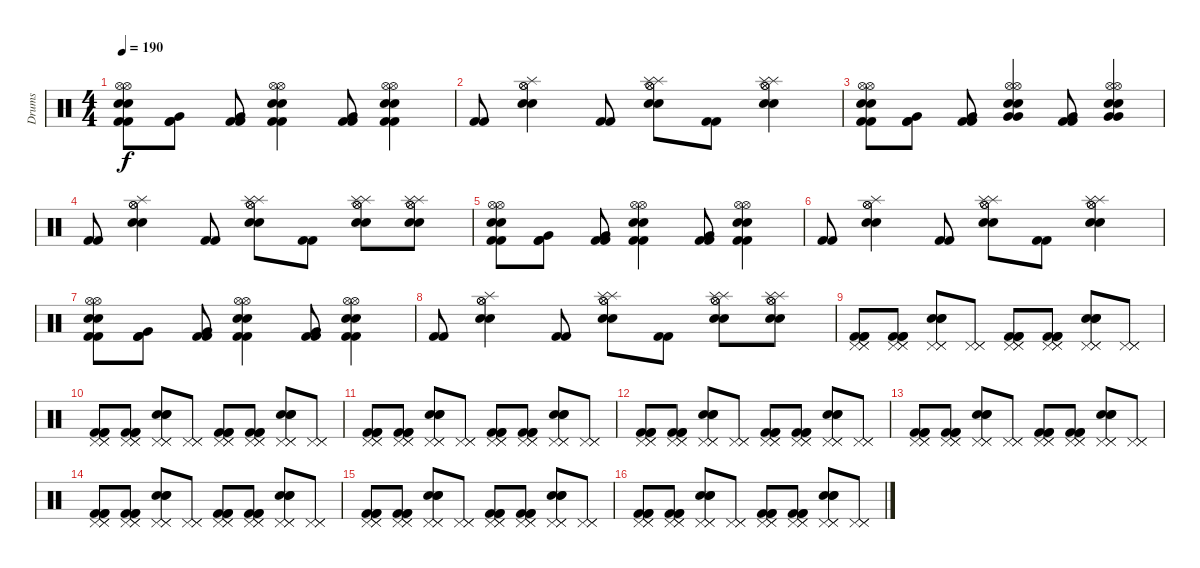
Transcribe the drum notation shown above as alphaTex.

\track ("Drums" "Drums") {instrument percussion}
\staff {score}
\articulation defaults
\ts (4 4)
\tempo 190
\clef neutral
\ks c
("Kick (hit) 2" "Kick (hit) 2" "Snare (hit) 2" "Snare (hit) 2" "Hi-Hat (open)" "Hi-Hat (open)").8{dy f} ("Kick (hit) 2" "Kick (hit) 2" "Very Low Tom (hit)").8 ("Kick (hit) 2" "Kick (hit) 2" "Very Low Tom (hit)").8 ("Kick (hit) 2" "Kick (hit) 2" "Snare (hit) 2" "Snare (hit) 2" "Hi-Hat (open)" "Hi-Hat (open)").4 ("Kick (hit) 2" "Kick (hit) 2" "Very Low Tom (hit)").8 ("Kick (hit) 2" "Kick (hit) 2" "Snare (hit) 2" "Snare (hit) 2" "Hi-Hat (open)" "Hi-Hat (open)").4 |
("Kick (hit) 2" "Kick (hit) 2").8 ("Snare (hit) 2" "Snare (hit) 2" "Hi-Hat (open)" "Hi-Hat (open)" "Splash (hit)").4 ("Kick (hit) 2" "Kick (hit) 2").8 ("Snare (hit) 2" "Snare (hit) 2" "Hi-Hat (open)" "Hi-Hat (open)" "Splash (hit)" "Splash (hit)").8 ("Kick (hit) 2" "Kick (hit) 2").8 ("Snare (hit) 2" "Snare (hit) 2" "Hi-Hat (open)" "Hi-Hat (open)" "Splash (hit)" "Splash (hit)").4 |
("Kick (hit) 2" "Kick (hit) 2" "Snare (hit) 2" "Snare (hit) 2" "Hi-Hat (open)" "Hi-Hat (open)").8 ("Kick (hit) 2" "Kick (hit) 2" "Very Low Tom (hit)").8 ("Kick (hit) 2" "Kick (hit) 2" "Very Low Tom (hit)").8 ("Very Low Tom (hit)" "Very Low Tom (hit)" "Snare (hit) 2" "Snare (hit) 2" "Hi-Hat (open)" "Hi-Hat (open)").4 ("Kick (hit) 2" "Kick (hit) 2" "Very Low Tom (hit)").8 ("Very Low Tom (hit)" "Very Low Tom (hit)" "Snare (hit) 2" "Snare (hit) 2" "Hi-Hat (open)" "Hi-Hat (open)").4 |
("Kick (hit) 2" "Kick (hit) 2").8 ("Snare (hit) 2" "Snare (hit) 2" "Hi-Hat (open)" "Hi-Hat (open)" "Splash (hit)").4 ("Kick (hit) 2" "Kick (hit) 2").8 ("Snare (hit) 2" "Snare (hit) 2" "Hi-Hat (open)" "Hi-Hat (open)" "Splash (hit)" "Splash (hit)").8 ("Kick (hit) 2" "Kick (hit) 2").8 ("Snare (hit) 2" "Snare (hit) 2" "Hi-Hat (open)" "Hi-Hat (open)" "Splash (hit)" "Splash (hit)").8 ("Snare (hit) 2" "Snare (hit) 2" "Hi-Hat (open)" "Hi-Hat (open)" "Splash (hit)" "Splash (hit)").8 |
("Kick (hit) 2" "Kick (hit) 2" "Snare (hit) 2" "Snare (hit) 2" "Hi-Hat (open)" "Hi-Hat (open)").8 ("Kick (hit) 2" "Kick (hit) 2" "Very Low Tom (hit)").8 ("Kick (hit) 2" "Kick (hit) 2" "Very Low Tom (hit)").8 ("Kick (hit) 2" "Kick (hit) 2" "Snare (hit) 2" "Snare (hit) 2" "Hi-Hat (open)" "Hi-Hat (open)").4 ("Kick (hit) 2" "Kick (hit) 2" "Very Low Tom (hit)").8 ("Kick (hit) 2" "Kick (hit) 2" "Snare (hit) 2" "Snare (hit) 2" "Hi-Hat (open)" "Hi-Hat (open)").4 |
("Kick (hit) 2" "Kick (hit) 2").8 ("Snare (hit) 2" "Snare (hit) 2" "Hi-Hat (open)" "Hi-Hat (open)" "Splash (hit)").4 ("Kick (hit) 2" "Kick (hit) 2").8 ("Snare (hit) 2" "Snare (hit) 2" "Hi-Hat (open)" "Hi-Hat (open)" "Splash (hit)" "Splash (hit)").8 ("Kick (hit) 2" "Kick (hit) 2").8 ("Snare (hit) 2" "Snare (hit) 2" "Hi-Hat (open)" "Hi-Hat (open)" "Splash (hit)" "Splash (hit)").4 |
("Kick (hit) 2" "Kick (hit) 2" "Snare (hit) 2" "Snare (hit) 2" "Hi-Hat (open)" "Hi-Hat (open)").8 ("Kick (hit) 2" "Kick (hit) 2" "Very Low Tom (hit)").8 ("Kick (hit) 2" "Kick (hit) 2" "Very Low Tom (hit)").8 ("Kick (hit) 2" "Kick (hit) 2" "Snare (hit) 2" "Snare (hit) 2" "Hi-Hat (open)" "Hi-Hat (open)").4 ("Kick (hit) 2" "Kick (hit) 2" "Very Low Tom (hit)").8 ("Kick (hit) 2" "Kick (hit) 2" "Snare (hit) 2" "Snare (hit) 2" "Hi-Hat (open)" "Hi-Hat (open)").4 |
("Kick (hit) 2" "Kick (hit) 2").8 ("Snare (hit) 2" "Snare (hit) 2" "Hi-Hat (open)" "Hi-Hat (open)" "Splash (hit)").4 ("Kick (hit) 2" "Kick (hit) 2").8 ("Snare (hit) 2" "Snare (hit) 2" "Hi-Hat (open)" "Hi-Hat (open)" "Splash (hit)" "Splash (hit)").8 ("Kick (hit) 2" "Kick (hit) 2").8 ("Snare (hit) 2" "Snare (hit) 2" "Hi-Hat (open)" "Hi-Hat (open)" "Splash (hit)" "Splash (hit)").8 ("Snare (hit) 2" "Snare (hit) 2" "Hi-Hat (open)" "Hi-Hat (open)" "Splash (hit)" "Splash (hit)").8 |
("Kick (hit) 2" "Kick (hit) 2" "Kick (hit) 2" "Pedal Hi-Hat (hit)" "Pedal Hi-Hat (hit)" "Pedal Hi-Hat (hit)").8 ("Kick (hit) 2" "Kick (hit) 2" "Kick (hit) 2" "Pedal Hi-Hat (hit)" "Pedal Hi-Hat (hit)" "Pedal Hi-Hat (hit)").8 ("Snare (hit) 2" "Snare (hit) 2" "Snare (hit) 2" "Pedal Hi-Hat (hit)" "Pedal Hi-Hat (hit)" "Pedal Hi-Hat (hit)").8 ("Pedal Hi-Hat (hit)" "Pedal Hi-Hat (hit)" "Pedal Hi-Hat (hit)").8 ("Kick (hit) 2" "Kick (hit) 2" "Kick (hit) 2" "Pedal Hi-Hat (hit)" "Pedal Hi-Hat (hit)" "Pedal Hi-Hat (hit)").8 ("Kick (hit) 2" "Kick (hit) 2" "Kick (hit) 2" "Pedal Hi-Hat (hit)" "Pedal Hi-Hat (hit)" "Pedal Hi-Hat (hit)").8 ("Snare (hit) 2" "Snare (hit) 2" "Snare (hit) 2" "Pedal Hi-Hat (hit)" "Pedal Hi-Hat (hit)" "Pedal Hi-Hat (hit)").8 ("Pedal Hi-Hat (hit)" "Pedal Hi-Hat (hit)" "Pedal Hi-Hat (hit)").8 |
("Kick (hit) 2" "Kick (hit) 2" "Kick (hit) 2" "Pedal Hi-Hat (hit)" "Pedal Hi-Hat (hit)" "Pedal Hi-Hat (hit)").8 ("Kick (hit) 2" "Kick (hit) 2" "Kick (hit) 2" "Pedal Hi-Hat (hit)" "Pedal Hi-Hat (hit)" "Pedal Hi-Hat (hit)").8 ("Snare (hit) 2" "Snare (hit) 2" "Snare (hit) 2" "Pedal Hi-Hat (hit)" "Pedal Hi-Hat (hit)" "Pedal Hi-Hat (hit)").8 ("Pedal Hi-Hat (hit)" "Pedal Hi-Hat (hit)" "Pedal Hi-Hat (hit)").8 ("Kick (hit) 2" "Kick (hit) 2" "Kick (hit) 2" "Pedal Hi-Hat (hit)" "Pedal Hi-Hat (hit)" "Pedal Hi-Hat (hit)").8 ("Kick (hit) 2" "Kick (hit) 2" "Kick (hit) 2" "Pedal Hi-Hat (hit)" "Pedal Hi-Hat (hit)" "Pedal Hi-Hat (hit)").8 ("Snare (hit) 2" "Snare (hit) 2" "Snare (hit) 2" "Pedal Hi-Hat (hit)" "Pedal Hi-Hat (hit)" "Pedal Hi-Hat (hit)").8 ("Pedal Hi-Hat (hit)" "Pedal Hi-Hat (hit)" "Pedal Hi-Hat (hit)").8 |
("Kick (hit) 2" "Kick (hit) 2" "Kick (hit) 2" "Pedal Hi-Hat (hit)" "Pedal Hi-Hat (hit)" "Pedal Hi-Hat (hit)").8 ("Kick (hit) 2" "Kick (hit) 2" "Kick (hit) 2" "Pedal Hi-Hat (hit)" "Pedal Hi-Hat (hit)" "Pedal Hi-Hat (hit)").8 ("Snare (hit) 2" "Snare (hit) 2" "Snare (hit) 2" "Pedal Hi-Hat (hit)" "Pedal Hi-Hat (hit)" "Pedal Hi-Hat (hit)").8 ("Pedal Hi-Hat (hit)" "Pedal Hi-Hat (hit)" "Pedal Hi-Hat (hit)").8 ("Kick (hit) 2" "Kick (hit) 2" "Kick (hit) 2" "Pedal Hi-Hat (hit)" "Pedal Hi-Hat (hit)" "Pedal Hi-Hat (hit)").8 ("Kick (hit) 2" "Kick (hit) 2" "Kick (hit) 2" "Pedal Hi-Hat (hit)" "Pedal Hi-Hat (hit)" "Pedal Hi-Hat (hit)").8 ("Snare (hit) 2" "Snare (hit) 2" "Snare (hit) 2" "Pedal Hi-Hat (hit)" "Pedal Hi-Hat (hit)" "Pedal Hi-Hat (hit)").8 ("Pedal Hi-Hat (hit)" "Pedal Hi-Hat (hit)" "Pedal Hi-Hat (hit)").8 |
("Kick (hit) 2" "Kick (hit) 2" "Kick (hit) 2" "Pedal Hi-Hat (hit)" "Pedal Hi-Hat (hit)" "Pedal Hi-Hat (hit)").8 ("Kick (hit) 2" "Kick (hit) 2" "Kick (hit) 2" "Pedal Hi-Hat (hit)" "Pedal Hi-Hat (hit)" "Pedal Hi-Hat (hit)").8 ("Snare (hit) 2" "Snare (hit) 2" "Snare (hit) 2" "Pedal Hi-Hat (hit)" "Pedal Hi-Hat (hit)" "Pedal Hi-Hat (hit)").8 ("Pedal Hi-Hat (hit)" "Pedal Hi-Hat (hit)" "Pedal Hi-Hat (hit)").8 ("Kick (hit) 2" "Kick (hit) 2" "Kick (hit) 2" "Pedal Hi-Hat (hit)" "Pedal Hi-Hat (hit)" "Pedal Hi-Hat (hit)").8 ("Kick (hit) 2" "Kick (hit) 2" "Kick (hit) 2" "Pedal Hi-Hat (hit)" "Pedal Hi-Hat (hit)" "Pedal Hi-Hat (hit)").8 ("Snare (hit) 2" "Snare (hit) 2" "Snare (hit) 2" "Pedal Hi-Hat (hit)" "Pedal Hi-Hat (hit)" "Pedal Hi-Hat (hit)").8 ("Pedal Hi-Hat (hit)" "Pedal Hi-Hat (hit)" "Pedal Hi-Hat (hit)").8 |
("Kick (hit) 2" "Kick (hit) 2" "Kick (hit) 2" "Pedal Hi-Hat (hit)" "Pedal Hi-Hat (hit)" "Pedal Hi-Hat (hit)").8 ("Kick (hit) 2" "Kick (hit) 2" "Kick (hit) 2" "Pedal Hi-Hat (hit)" "Pedal Hi-Hat (hit)" "Pedal Hi-Hat (hit)").8 ("Snare (hit) 2" "Snare (hit) 2" "Snare (hit) 2" "Pedal Hi-Hat (hit)" "Pedal Hi-Hat (hit)" "Pedal Hi-Hat (hit)").8 ("Pedal Hi-Hat (hit)" "Pedal Hi-Hat (hit)" "Pedal Hi-Hat (hit)").8 ("Kick (hit) 2" "Kick (hit) 2" "Kick (hit) 2" "Pedal Hi-Hat (hit)" "Pedal Hi-Hat (hit)" "Pedal Hi-Hat (hit)").8 ("Kick (hit) 2" "Kick (hit) 2" "Kick (hit) 2" "Pedal Hi-Hat (hit)" "Pedal Hi-Hat (hit)" "Pedal Hi-Hat (hit)").8 ("Snare (hit) 2" "Snare (hit) 2" "Snare (hit) 2" "Pedal Hi-Hat (hit)" "Pedal Hi-Hat (hit)" "Pedal Hi-Hat (hit)").8 ("Pedal Hi-Hat (hit)" "Pedal Hi-Hat (hit)" "Pedal Hi-Hat (hit)").8 |
("Kick (hit) 2" "Kick (hit) 2" "Kick (hit) 2" "Pedal Hi-Hat (hit)" "Pedal Hi-Hat (hit)" "Pedal Hi-Hat (hit)").8 ("Kick (hit) 2" "Kick (hit) 2" "Kick (hit) 2" "Pedal Hi-Hat (hit)" "Pedal Hi-Hat (hit)" "Pedal Hi-Hat (hit)").8 ("Snare (hit) 2" "Snare (hit) 2" "Snare (hit) 2" "Pedal Hi-Hat (hit)" "Pedal Hi-Hat (hit)" "Pedal Hi-Hat (hit)").8 ("Pedal Hi-Hat (hit)" "Pedal Hi-Hat (hit)" "Pedal Hi-Hat (hit)").8 ("Kick (hit) 2" "Kick (hit) 2" "Kick (hit) 2" "Pedal Hi-Hat (hit)" "Pedal Hi-Hat (hit)" "Pedal Hi-Hat (hit)").8 ("Kick (hit) 2" "Kick (hit) 2" "Kick (hit) 2" "Pedal Hi-Hat (hit)" "Pedal Hi-Hat (hit)" "Pedal Hi-Hat (hit)").8 ("Snare (hit) 2" "Snare (hit) 2" "Snare (hit) 2" "Pedal Hi-Hat (hit)" "Pedal Hi-Hat (hit)" "Pedal Hi-Hat (hit)").8 ("Pedal Hi-Hat (hit)" "Pedal Hi-Hat (hit)" "Pedal Hi-Hat (hit)").8 |
("Kick (hit) 2" "Kick (hit) 2" "Kick (hit) 2" "Pedal Hi-Hat (hit)" "Pedal Hi-Hat (hit)" "Pedal Hi-Hat (hit)").8 ("Kick (hit) 2" "Kick (hit) 2" "Kick (hit) 2" "Pedal Hi-Hat (hit)" "Pedal Hi-Hat (hit)" "Pedal Hi-Hat (hit)").8 ("Snare (hit) 2" "Snare (hit) 2" "Snare (hit) 2" "Pedal Hi-Hat (hit)" "Pedal Hi-Hat (hit)" "Pedal Hi-Hat (hit)").8 ("Pedal Hi-Hat (hit)" "Pedal Hi-Hat (hit)" "Pedal Hi-Hat (hit)").8 ("Kick (hit) 2" "Kick (hit) 2" "Kick (hit) 2" "Pedal Hi-Hat (hit)" "Pedal Hi-Hat (hit)" "Pedal Hi-Hat (hit)").8 ("Kick (hit) 2" "Kick (hit) 2" "Kick (hit) 2" "Pedal Hi-Hat (hit)" "Pedal Hi-Hat (hit)" "Pedal Hi-Hat (hit)").8 ("Snare (hit) 2" "Snare (hit) 2" "Snare (hit) 2" "Pedal Hi-Hat (hit)" "Pedal Hi-Hat (hit)" "Pedal Hi-Hat (hit)").8 ("Pedal Hi-Hat (hit)" "Pedal Hi-Hat (hit)" "Pedal Hi-Hat (hit)").8 |
("Kick (hit) 2" "Kick (hit) 2" "Kick (hit) 2" "Pedal Hi-Hat (hit)" "Pedal Hi-Hat (hit)" "Pedal Hi-Hat (hit)").8 ("Kick (hit) 2" "Kick (hit) 2" "Kick (hit) 2" "Pedal Hi-Hat (hit)" "Pedal Hi-Hat (hit)" "Pedal Hi-Hat (hit)").8 ("Snare (hit) 2" "Snare (hit) 2" "Snare (hit) 2" "Pedal Hi-Hat (hit)" "Pedal Hi-Hat (hit)" "Pedal Hi-Hat (hit)").8 ("Pedal Hi-Hat (hit)" "Pedal Hi-Hat (hit)" "Pedal Hi-Hat (hit)").8 ("Kick (hit) 2" "Kick (hit) 2" "Kick (hit) 2" "Pedal Hi-Hat (hit)" "Pedal Hi-Hat (hit)" "Pedal Hi-Hat (hit)").8 ("Kick (hit) 2" "Kick (hit) 2" "Kick (hit) 2" "Pedal Hi-Hat (hit)" "Pedal Hi-Hat (hit)" "Pedal Hi-Hat (hit)").8 ("Snare (hit) 2" "Snare (hit) 2" "Snare (hit) 2" "Pedal Hi-Hat (hit)" "Pedal Hi-Hat (hit)" "Pedal Hi-Hat (hit)").8 ("Pedal Hi-Hat (hit)" "Pedal Hi-Hat (hit)" "Pedal Hi-Hat (hit)").8
